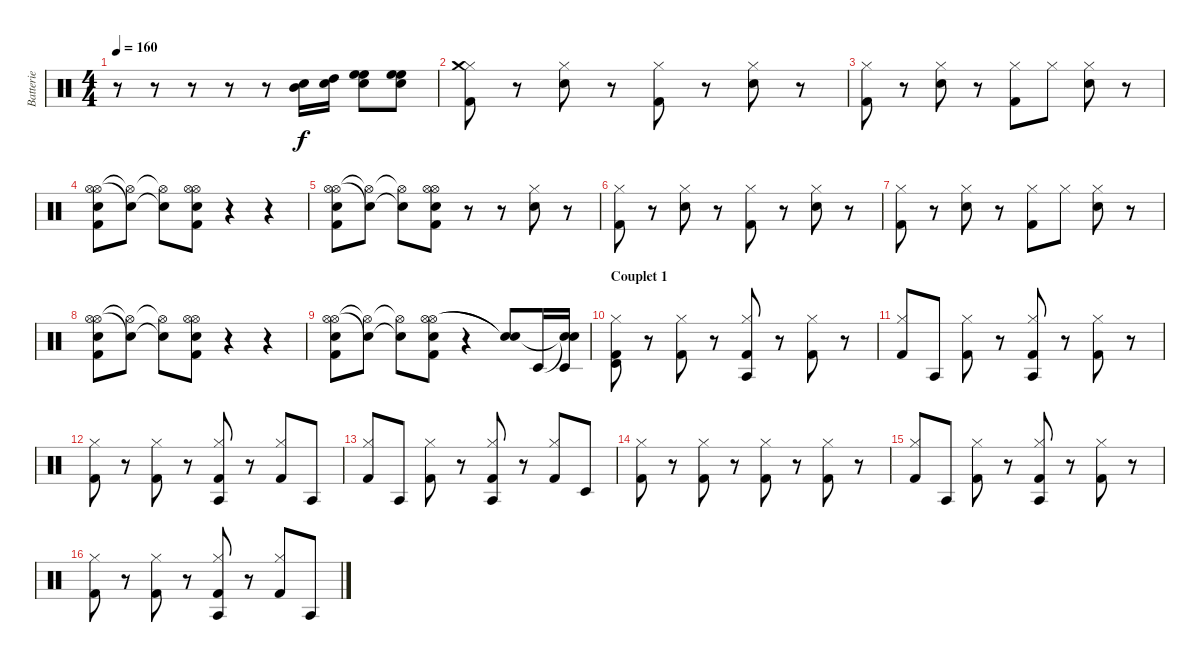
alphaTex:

\track ("Batterie" "Batterie") {instrument percussion}
\staff {score}
\articulation defaults
\ts (4 4)
\tempo 160
\clef neutral
\ks c
r.8{dy f} r.8 r.8 r.8 r.8 ("Snare (hit) 2" "Mid Tom (hit)").16 ("Snare (hit) 2" "High Tom (hit)").16 ("Snare (hit) 2" "High Floor Tom (hit)" "High Floor Tom (hit)").8 ("Snare (hit) 2" "High Floor Tom (hit)" "High Floor Tom (hit)").8 |
("Hi-Hat (closed)" "Crash medium (hit)" "Kick (hit) 2").8 r.8 ("Hi-Hat (closed)" "Snare (hit) 2").8 r.8 ("Hi-Hat (closed)" "Kick (hit) 2").8 r.8 ("Hi-Hat (closed)" "Snare (hit) 2").8 r.8 |
("Hi-Hat (closed)" "Kick (hit) 2").8 r.8 ("Hi-Hat (closed)" "Snare (hit) 2").8 r.8 ("Hi-Hat (closed)" "Kick (hit) 2").8 "Hi-Hat (closed)".8 ("Hi-Hat (closed)" "Snare (hit) 2").8 r.8 |
("Hi-Hat (open)" "Hi-Hat (open)" "Snare (hit) 2" "Kick (hit) 2").8 ("Hi-Hat (open)"{t} "Snare (hit)"{t}).8 ("Hi-Hat (open)"{t} "Snare (hit)"{t}).8 ("Hi-Hat (open)" "Hi-Hat (open)" "Snare (hit) 2" "Kick (hit) 2").8 r.4 r.4 |
("Hi-Hat (open)" "Hi-Hat (open)" "Snare (hit) 2" "Kick (hit) 2").8 ("Hi-Hat (open)"{t} "Snare (hit)"{t}).8 ("Hi-Hat (open)"{t} "Snare (hit)"{t}).8 ("Hi-Hat (open)" "Hi-Hat (open)" "Snare (hit) 2" "Kick (hit) 2").8 r.8 r.8 ("Hi-Hat (closed)" "Snare (hit) 2").8 r.8 |
("Hi-Hat (closed)" "Kick (hit) 2").8 r.8 ("Hi-Hat (closed)" "Snare (hit) 2").8 r.8 ("Hi-Hat (closed)" "Kick (hit) 2").8 r.8 ("Hi-Hat (closed)" "Snare (hit) 2").8 r.8 |
("Hi-Hat (closed)" "Kick (hit) 2").8 r.8 ("Hi-Hat (closed)" "Snare (hit) 2").8 r.8 ("Hi-Hat (closed)" "Kick (hit) 2").8 "Hi-Hat (closed)".8 ("Hi-Hat (closed)" "Snare (hit) 2").8 r.8 |
("Hi-Hat (open)" "Hi-Hat (open)" "Snare (hit) 2" "Kick (hit) 2").8 ("Hi-Hat (open)"{t} "Snare (hit)"{t}).8 ("Hi-Hat (open)"{t} "Snare (hit)"{t}).8 ("Hi-Hat (open)" "Hi-Hat (open)" "Snare (hit) 2" "Kick (hit) 2").8 r.4 r.4 |
("Hi-Hat (open)" "Hi-Hat (open)" "Snare (hit) 2" "Kick (hit) 2").8 ("Hi-Hat (open)"{t} "Snare (hit)"{t}).8 ("Hi-Hat (open)"{t} "Snare (hit)"{t}).8 ("Hi-Hat (open)" "Hi-Hat (open)" "Snare (hit) 2" "Kick (hit) 2").8 r.4 ("Snare (hit)"{t} "Snare (hit)"{t}).8 "Timbale low (hit)".16 ("Snare (hit)"{t} "Snare (hit)"{t} "Timbale low (hit)").16 |
\section ("" "Couplet 1")
("Hi-Hat (closed)" "Timbale high (hit)" "Kick (hit) 2").8 r.8 ("Hi-Hat (closed)" "Kick (hit) 2").8 r.8 ("Hi-Hat (closed)" "Agogo tow (hit)" "Kick (hit) 2").8 r.8 ("Hi-Hat (closed)" "Kick (hit) 2").8 r.8 |
("Hi-Hat (closed)" "Kick (hit) 2").8 "Agogo tow (hit)".8 ("Hi-Hat (closed)" "Kick (hit) 2").8 r.8 ("Hi-Hat (closed)" "Agogo tow (hit)" "Kick (hit) 2").8 r.8 ("Hi-Hat (closed)" "Kick (hit) 2").8 r.8 |
("Hi-Hat (closed)" "Kick (hit) 2").8 r.8 ("Hi-Hat (closed)" "Kick (hit) 2").8 r.8 ("Hi-Hat (closed)" "Agogo tow (hit)" "Kick (hit) 2").8 r.8 ("Hi-Hat (closed)" "Kick (hit) 2").8 "Agogo tow (hit)".8 |
("Hi-Hat (closed)" "Kick (hit) 2").8 "Agogo tow (hit)".8 ("Hi-Hat (closed)" "Kick (hit) 2").8 r.8 ("Hi-Hat (closed)" "Agogo tow (hit)" "Kick (hit) 2").8 r.8 ("Hi-Hat (closed)" "Kick (hit) 2").8 "Timbale low (hit)".8 |
("Hi-Hat (closed)" "Kick (hit) 2").8 r.8 ("Hi-Hat (closed)" "Kick (hit) 2").8 r.8 ("Hi-Hat (closed)" "Kick (hit) 2").8 r.8 ("Hi-Hat (closed)" "Kick (hit) 2").8 r.8 |
("Hi-Hat (closed)" "Kick (hit) 2").8 "Agogo tow (hit)".8 ("Hi-Hat (closed)" "Kick (hit) 2").8 r.8 ("Hi-Hat (closed)" "Agogo tow (hit)" "Kick (hit) 2").8 r.8 ("Hi-Hat (closed)" "Kick (hit) 2").8 r.8 |
("Hi-Hat (closed)" "Kick (hit) 2").8 r.8 ("Hi-Hat (closed)" "Kick (hit) 2").8 r.8 ("Hi-Hat (closed)" "Agogo tow (hit)" "Kick (hit) 2").8 r.8 ("Hi-Hat (closed)" "Kick (hit) 2").8 "Agogo tow (hit)".8
